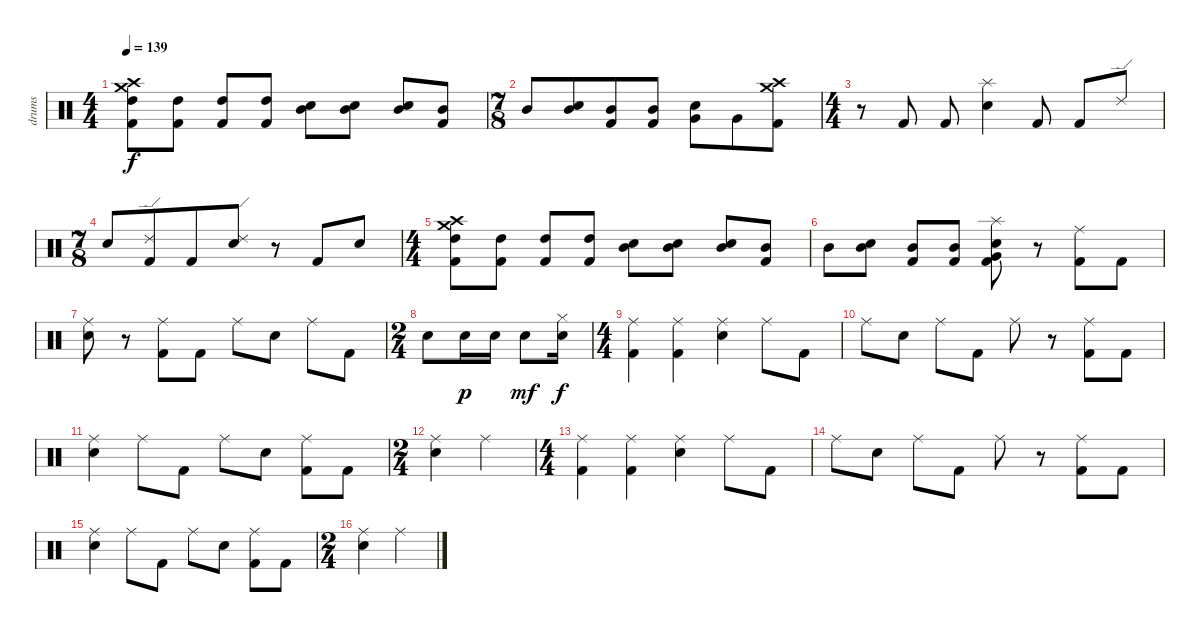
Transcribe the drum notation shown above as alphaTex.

\track ("drums" "drums") {instrument percussion}
\staff {score}
\articulation defaults
\ts (4 4)
\tempo 139
\clef neutral
\ks c
("Crash medium (hit)" "Crash high (hit)" "High Tom (hit)" "Kick (hit) 2").8{dy f} ("High Tom (hit)" "Kick (hit) 2").8 ("High Tom (hit)" "Kick (hit) 2").8 ("High Tom (hit)" "Kick (hit) 2").8 ("Mid Tom (hit)" "Electric Snare (hit)").8 ("Mid Tom (hit)" "Electric Snare (hit)").8 ("Mid Tom (hit)" "Electric Snare (hit)").8 ("Mid Tom (hit)" "Kick (hit) 2").8 |
\ts (7 8)
"Mid Tom (hit)".8 ("Mid Tom (hit)" "Electric Snare (hit)").8 ("Mid Tom (hit)" "Kick (hit) 2").8 ("Mid Tom (hit)" "Kick (hit) 2").8 ("Very Low Tom (hit)" "Electric Snare (hit)").8 "Very Low Tom (hit)".8 ("Crash medium (hit)" "Crash high (hit)" "Kick (hit) 2").8 |
\ts (4 4)
r.8 "Kick (hit) 2".8 "Kick (hit) 2".8 ("Splash (hit)" "Electric Snare (hit)").4 "Kick (hit) 2".8 "Kick (hit) 2".8 "Ride (edge) 2".8 |
\ts (7 8)
"Electric Snare (hit)".8 ("Ride (edge) 2" "Kick (hit) 2").8 "Kick (hit) 2".8 ("Ride (edge) 2" "Electric Snare (hit)").8 r.8 "Kick (hit) 2".8 "Electric Snare (hit)".8 |
\ts (4 4)
("Crash medium (hit)" "Crash high (hit)" "High Tom (hit)" "Kick (hit) 2").8 ("High Tom (hit)" "Kick (hit) 2").8 ("High Tom (hit)" "Kick (hit) 2").8 ("High Tom (hit)" "Kick (hit) 2").8 ("Mid Tom (hit)" "Electric Snare (hit)").8 ("Mid Tom (hit)" "Electric Snare (hit)").8 ("Mid Tom (hit)" "Electric Snare (hit)").8 ("Mid Tom (hit)" "Kick (hit) 2").8 |
"Mid Tom (hit)".8 ("Mid Tom (hit)" "Electric Snare (hit)").8 ("Mid Tom (hit)" "Kick (hit) 2").8 ("Mid Tom (hit)" "Kick (hit) 2").8 ("Splash (hit)" "Very Low Tom (hit)" "Electric Snare (hit)" "Kick (hit) 2").8 r.8 ("Ride (middle)" "Kick (hit) 2").8 "Kick (hit) 2".8 |
("Ride (middle)" "Electric Snare (hit)").8 r.8 ("Ride (middle)" "Kick (hit) 2").8 "Kick (hit) 2".8 "Ride (middle)".8 "Electric Snare (hit)".8 "Ride (middle)".8 "Kick (hit) 2".8 |
\ts (2 4)
"Electric Snare (hit)".8 "Electric Snare (hit)".16{dy p} "Electric Snare (hit)".16 "Electric Snare (hit)".8{dy mf} ("Hi-Hat (closed)" "Electric Snare (hit)").16{dy f} |
\ts (4 4)
("Ride (middle)" "Kick (hit) 2").4 ("Ride (middle)" "Kick (hit) 2").4 ("Ride (middle)" "Electric Snare (hit)").4 "Ride (middle)".8 "Kick (hit) 2".8 |
"Ride (middle)".8 "Electric Snare (hit)".8 "Ride (middle)".8 "Kick (hit) 2".8 "Ride (middle)".8 r.8 ("Ride (middle)" "Kick (hit) 2").8 "Kick (hit) 2".8 |
("Ride (middle)" "Electric Snare (hit)").4 "Ride (middle)".8 "Kick (hit) 2".8 "Ride (middle)".8 "Electric Snare (hit)".8 ("Ride (middle)" "Kick (hit) 2").8 "Kick (hit) 2".8 |
\ts (2 4)
("Ride (middle)" "Electric Snare (hit)").4 "Ride (middle)".4 |
\ts (4 4)
("Ride (middle)" "Kick (hit) 2").4 ("Ride (middle)" "Kick (hit) 2").4 ("Ride (middle)" "Electric Snare (hit)").4 "Ride (middle)".8 "Kick (hit) 2".8 |
"Ride (middle)".8 "Electric Snare (hit)".8 "Ride (middle)".8 "Kick (hit) 2".8 "Ride (middle)".8 r.8 ("Ride (middle)" "Kick (hit) 2").8 "Kick (hit) 2".8 |
("Ride (middle)" "Electric Snare (hit)").4 "Ride (middle)".8 "Kick (hit) 2".8 "Ride (middle)".8 "Electric Snare (hit)".8 ("Ride (middle)" "Kick (hit) 2").8 "Kick (hit) 2".8 |
\ts (2 4)
("Ride (middle)" "Electric Snare (hit)").4 "Ride (middle)".4
